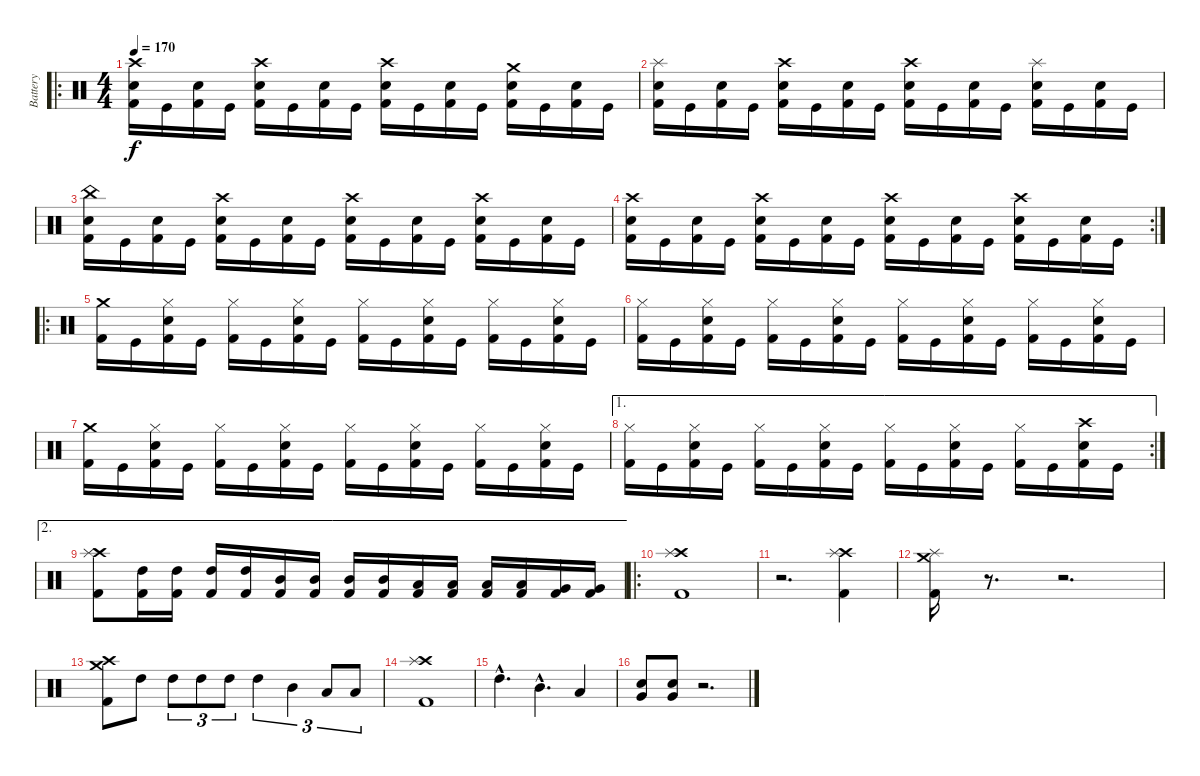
\track ("Battery" "Battery") {instrument percussion}
\staff {score}
\articulation defaults
\ro
\ts (4 4)
\tempo 170
\clef neutral
\ks c
("Crash high (hit)" "Snare (hit) 2" "Kick (hit) 2").16{dy f} "Kick (hit)".16 ("Snare (hit) 2" "Kick (hit) 2").16 "Kick (hit)".16 ("Crash high (hit)" "Snare (hit) 2" "Kick (hit) 2").16 "Kick (hit)".16 ("Snare (hit) 2" "Kick (hit) 2").16 "Kick (hit)".16 ("Crash high (hit)" "Snare (hit) 2" "Kick (hit) 2").16 "Kick (hit)".16 ("Snare (hit) 2" "Kick (hit) 2").16 "Kick (hit)".16 ("Crash medium (hit)" "Snare (hit) 2" "Kick (hit) 2").16 "Kick (hit)".16 ("Snare (hit) 2" "Kick (hit) 2").16 "Kick (hit)".16 |
("Splash (hit)" "Snare (hit) 2" "Kick (hit) 2").16 "Kick (hit)".16 ("Snare (hit) 2" "Kick (hit) 2").16 "Kick (hit)".16 ("Crash high (hit)" "Snare (hit) 2" "Kick (hit) 2").16 "Kick (hit)".16 ("Snare (hit) 2" "Kick (hit) 2").16 "Kick (hit)".16 ("Crash high (hit)" "Snare (hit) 2" "Kick (hit) 2").16 "Kick (hit)".16 ("Snare (hit) 2" "Kick (hit) 2").16 "Kick (hit)".16 ("Splash (hit)" "Snare (hit) 2" "Kick (hit) 2").16 "Kick (hit)".16 ("Snare (hit) 2" "Kick (hit) 2").16 "Kick (hit)".16 |
("China (hit)" "Snare (hit) 2" "Kick (hit) 2").16 "Kick (hit)".16 ("Snare (hit) 2" "Kick (hit) 2").16 "Kick (hit)".16 ("Crash high (hit)" "Snare (hit) 2" "Kick (hit) 2").16 "Kick (hit)".16 ("Snare (hit) 2" "Kick (hit) 2").16 "Kick (hit)".16 ("Crash high (hit)" "Snare (hit) 2" "Kick (hit) 2").16 "Kick (hit)".16 ("Snare (hit) 2" "Kick (hit) 2").16 "Kick (hit)".16 ("Crash high (hit)" "Snare (hit) 2" "Kick (hit) 2").16 "Kick (hit)".16 ("Snare (hit) 2" "Kick (hit) 2").16 "Kick (hit)".16 |
\rc 2
("Crash high (hit)" "Snare (hit) 2" "Kick (hit) 2").16 "Kick (hit)".16 ("Snare (hit) 2" "Kick (hit) 2").16 "Kick (hit)".16 ("Crash high (hit)" "Snare (hit) 2" "Kick (hit) 2").16 "Kick (hit)".16 ("Snare (hit) 2" "Kick (hit) 2").16 "Kick (hit)".16 ("Crash high (hit)" "Snare (hit) 2" "Kick (hit) 2").16 "Kick (hit)".16 ("Snare (hit) 2" "Kick (hit) 2").16 "Kick (hit)".16 ("Crash high (hit)" "Snare (hit) 2" "Kick (hit) 2").16 "Kick (hit)".16 ("Snare (hit) 2" "Kick (hit) 2").16 "Kick (hit)".16 |
\ro
("Crash medium (hit)" "Kick (hit) 2").16 "Kick (hit)".16 ("Hi-Hat (closed)" "Snare (hit) 2" "Kick (hit) 2").16 "Kick (hit)".16 ("Hi-Hat (closed)" "Kick (hit) 2").16 "Kick (hit)".16 ("Hi-Hat (closed)" "Snare (hit) 2" "Kick (hit) 2").16 "Kick (hit)".16 ("Hi-Hat (closed)" "Kick (hit) 2").16 "Kick (hit)".16 ("Hi-Hat (closed)" "Snare (hit) 2" "Kick (hit) 2").16 "Kick (hit)".16 ("Hi-Hat (closed)" "Kick (hit) 2").16 "Kick (hit)".16 ("Hi-Hat (closed)" "Snare (hit) 2" "Kick (hit) 2").16 "Kick (hit)".16 |
("Hi-Hat (closed)" "Kick (hit) 2").16 "Kick (hit)".16 ("Hi-Hat (closed)" "Snare (hit) 2" "Kick (hit) 2").16 "Kick (hit)".16 ("Hi-Hat (closed)" "Kick (hit) 2").16 "Kick (hit)".16 ("Hi-Hat (closed)" "Snare (hit) 2" "Kick (hit) 2").16 "Kick (hit)".16 ("Hi-Hat (closed)" "Kick (hit) 2").16 "Kick (hit)".16 ("Hi-Hat (closed)" "Snare (hit) 2" "Kick (hit) 2").16 "Kick (hit)".16 ("Hi-Hat (closed)" "Kick (hit) 2").16 "Kick (hit)".16 ("Hi-Hat (closed)" "Snare (hit) 2" "Kick (hit) 2").16 "Kick (hit)".16 |
("Crash medium (hit)" "Kick (hit) 2").16 "Kick (hit)".16 ("Hi-Hat (closed)" "Snare (hit) 2" "Kick (hit) 2").16 "Kick (hit)".16 ("Hi-Hat (closed)" "Kick (hit) 2").16 "Kick (hit)".16 ("Hi-Hat (closed)" "Snare (hit) 2" "Kick (hit) 2").16 "Kick (hit)".16 ("Hi-Hat (closed)" "Kick (hit) 2").16 "Kick (hit)".16 ("Hi-Hat (closed)" "Snare (hit) 2" "Kick (hit) 2").16 "Kick (hit)".16 ("Hi-Hat (closed)" "Kick (hit) 2").16 "Kick (hit)".16 ("Hi-Hat (closed)" "Snare (hit) 2" "Kick (hit) 2").16 "Kick (hit)".16 |
\ae 1
\rc 2
("Hi-Hat (closed)" "Kick (hit) 2").16 "Kick (hit)".16 ("Hi-Hat (closed)" "Snare (hit) 2" "Kick (hit) 2").16 "Kick (hit)".16 ("Hi-Hat (closed)" "Kick (hit) 2").16 "Kick (hit)".16 ("Hi-Hat (closed)" "Snare (hit) 2" "Kick (hit) 2").16 "Kick (hit)".16 ("Hi-Hat (closed)" "Kick (hit) 2").16 "Kick (hit)".16 ("Hi-Hat (closed)" "Snare (hit) 2" "Kick (hit) 2").16 "Kick (hit)".16 ("Hi-Hat (closed)" "Kick (hit) 2").16 "Kick (hit)".16 ("Crash high (hit)" "Snare (hit) 2" "Kick (hit) 2").16 "Kick (hit)".16 |
\ae 2
("Crash high (hit)" "Splash (hit)" "Kick (hit) 2").8 ("High Tom (hit)" "Kick (hit) 2").16 ("High Tom (hit)" "Kick (hit) 2").16 ("High Tom (hit)" "Kick (hit) 2").16 ("High Tom (hit)" "Kick (hit) 2").16 ("Mid Tom (hit)" "Kick (hit) 2").16 ("Mid Tom (hit)" "Kick (hit) 2").16 ("Mid Tom (hit)" "Kick (hit) 2").16 ("Mid Tom (hit)" "Kick (hit) 2").16 ("Low Tom (hit)" "Kick (hit) 2").16 ("Low Tom (hit)" "Kick (hit) 2").16 ("Low Tom (hit)" "Kick (hit) 2").16 ("Low Tom (hit)" "Kick (hit) 2").16 ("Very Low Tom (hit)" "Kick (hit) 2").16 ("Very Low Tom (hit)" "Kick (hit) 2").16 |
\ro
("Crash high (hit)" "Splash (hit)" "Kick (hit) 2").1 |
r.2{d} ("Crash high (hit)" "Splash (hit)" "Kick (hit) 2").4 |
("Splash (hit)" "Crash medium (hit)" "Kick (hit) 2").16 r.8{d} r.2{d} |
("Crash high (hit)" "Crash medium (hit)" "Kick (hit) 2").8 "High Tom (hit)".8 "High Tom (hit)".8{tu (3 2)} "High Tom (hit)".8{tu (3 2)} "High Tom (hit)".8{tu (3 2)} "High Tom (hit)".4{tu (3 2)} "Mid Tom (hit)".4{tu (3 2)} "Low Tom (hit)".8{tu (3 2)} "Low Tom (hit)".8{tu (3 2)} |
("Crash high (hit)" "Splash (hit)" "Kick (hit) 2").1 |
"High Tom (hit)"{hac}.4{d} "Mid Tom (hit)"{hac}.4{d} "Low Tom (hit)".4 |
("Very Low Tom (hit)" "Snare (hit) 2").8 ("Very Low Tom (hit)" "Snare (hit) 2").8 r.2{d}
